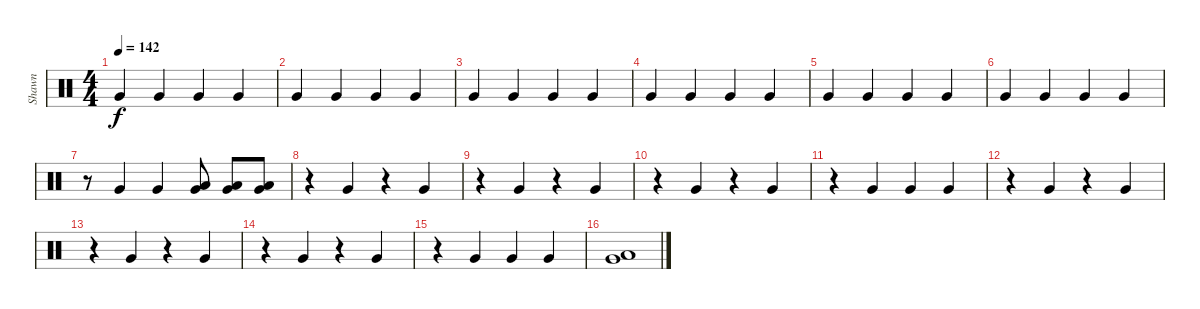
\track ("Shawn" "Shawn") {instrument percussion}
\staff {score}
\articulation defaults
\ts (4 4)
\tempo 142
\clef neutral
\ks c "Very Low Tom (hit)".4{dy f} "Very Low Tom (hit)".4 "Very Low Tom (hit)".4 "Very Low Tom (hit)".4
|
"Very Low Tom (hit)".4 "Very Low Tom (hit)".4 "Very Low Tom (hit)".4 "Very Low Tom (hit)".4 |
"Very Low Tom (hit)".4 "Very Low Tom (hit)".4 "Very Low Tom (hit)".4 "Very Low Tom (hit)".4 |
"Very Low Tom (hit)".4 "Very Low Tom (hit)".4 "Very Low Tom (hit)".4 "Very Low Tom (hit)".4 |
"Very Low Tom (hit)".4 "Very Low Tom (hit)".4 "Very Low Tom (hit)".4 "Very Low Tom (hit)".4 |
"Very Low Tom (hit)".4 "Very Low Tom (hit)".4 "Very Low Tom (hit)".4 "Very Low Tom (hit)".4 |
r.8 "Very Low Tom (hit)".4 "Very Low Tom (hit)".4 ("Very Low Tom (hit)" "Low Floor Tom (hit)").8 ("Very Low Tom (hit)" "Low Floor Tom (hit)").8 ("Very Low Tom (hit)" "Low Floor Tom (hit)").8 |
r.4 "Very Low Tom (hit)".4 r.4 "Very Low Tom (hit)".4 |
r.4 "Very Low Tom (hit)".4 r.4 "Very Low Tom (hit)".4 |
r.4 "Very Low Tom (hit)".4 r.4 "Very Low Tom (hit)".4 |
r.4 "Very Low Tom (hit)".4 "Very Low Tom (hit)".4 "Very Low Tom (hit)".4 |
r.4 "Very Low Tom (hit)".4 r.4 "Very Low Tom (hit)".4 |
r.4 "Very Low Tom (hit)".4 r.4 "Very Low Tom (hit)".4 |
r.4 "Very Low Tom (hit)".4 r.4 "Very Low Tom (hit)".4 |
r.4 "Very Low Tom (hit)".4 "Very Low Tom (hit)".4 "Very Low Tom (hit)".4 |
("Very Low Tom (hit)" "Low Floor Tom (hit)").1
